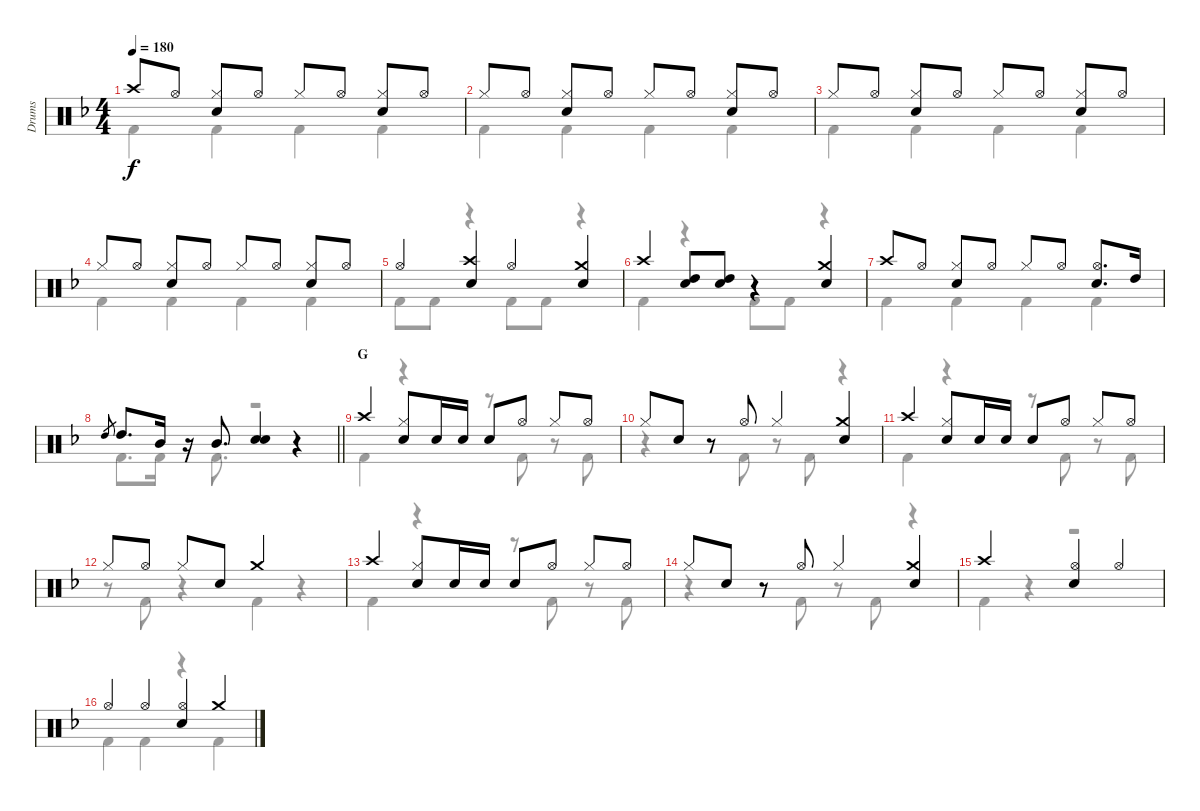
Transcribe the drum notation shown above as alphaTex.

\track ("Drums" "Drums") {instrument percussion}
\staff {score}
\articulation defaults
\voice
\ts (4 4)
\tempo 180
\clef neutral
\ks f "Crash high (hit)".8{dy f} "Hi-Hat (open)".8
("Hi-Hat (closed)" "Snare (hit) 2").8 "Hi-Hat (open)".8 "Hi-Hat (closed)".8 "Hi-Hat (open)".8 ("Hi-Hat (closed)" "Snare (hit) 2").8 "Hi-Hat (open)".8 |
"Hi-Hat (closed)".8 "Hi-Hat (open)".8 ("Hi-Hat (closed)" "Snare (hit) 2").8 "Hi-Hat (open)".8 "Hi-Hat (closed)".8 "Hi-Hat (open)".8 ("Hi-Hat (closed)" "Snare (hit) 2").8 "Hi-Hat (open)".8 |
"Hi-Hat (closed)".8 "Hi-Hat (open)".8 ("Hi-Hat (closed)" "Snare (hit) 2").8 "Hi-Hat (open)".8 "Hi-Hat (closed)".8 "Hi-Hat (open)".8 ("Hi-Hat (closed)" "Snare (hit) 2").8 "Hi-Hat (open)".8 |
"Hi-Hat (closed)".8 "Hi-Hat (open)".8 ("Hi-Hat (closed)" "Snare (hit) 2").8 "Hi-Hat (open)".8 "Hi-Hat (closed)".8 "Hi-Hat (open)".8 ("Hi-Hat (closed)" "Snare (hit) 2").8 "Hi-Hat (open)".8 |
"Hi-Hat (open)".4 ("Crash high (hit)" "Snare (hit) 2").4 "Hi-Hat (open)".4 ("Crash medium (hit)" "Snare (hit) 2").4 |
"Crash high (hit)".4 ("High Tom (hit)" "Snare (hit) 2").8 ("High Tom (hit)" "Snare (hit) 2").8 r.4 ("Crash medium (hit)" "Snare (hit) 2").4 |
"Crash high (hit)".8 "Hi-Hat (open)".8 ("Hi-Hat (closed)" "Snare (hit) 2").8 "Hi-Hat (open)".8 "Hi-Hat (closed)".8 "Hi-Hat (open)".8 ("Hi-Hat (open)" "Snare (hit) 2").8{d} "High Tom (hit)".16 |
\barLineRight lightlight "High Tom (hit)".8{gr} "High Tom (hit)".8{d} "Mid Tom (hit)".16
r.16 "Mid Tom (hit)".8{d} ("Snare (hit) 2" "Snare (hit) 2").4 r.4 |
\section ("" "G")
"Crash high (hit)".4 ("Hi-Hat (closed)" "Snare (hit) 2").8 "Snare (hit) 2".16 "Snare (hit) 2".16 "Snare (hit) 2".8 "Hi-Hat (open)".8 "Hi-Hat (closed)".8 "Hi-Hat (open)".8 |
"Hi-Hat (closed)".8 "Snare (hit) 2".8 r.8 "Hi-Hat (open)".8 "Hi-Hat (closed)".4 ("Crash medium (hit)" "Snare (hit) 2").4 |
"Crash high (hit)".4 ("Hi-Hat (closed)" "Snare (hit) 2").8 "Snare (hit) 2".16 "Snare (hit) 2".16 "Snare (hit) 2".8 "Hi-Hat (open)".8 "Hi-Hat (closed)".8 "Hi-Hat (open)".8 |
"Hi-Hat (closed)".8 "Hi-Hat (open)".8 "Hi-Hat (closed)".8 "Snare (hit) 2".8 "Crash medium (hit)".2 |
"Crash high (hit)".4 ("Hi-Hat (closed)" "Snare (hit) 2").8 "Snare (hit) 2".16 "Snare (hit) 2".16 "Snare (hit) 2".8 "Hi-Hat (open)".8 "Hi-Hat (closed)".8 "Hi-Hat (open)".8 |
"Hi-Hat (closed)".8 "Snare (hit) 2".8 r.8 "Hi-Hat (open)".8 "Hi-Hat (closed)".4 ("Crash medium (hit)" "Snare (hit) 2").4 |
"Crash high (hit)".2 ("Hi-Hat (open)" "Snare (hit) 2").4 "Hi-Hat (open)".4 |
"Hi-Hat (open)".4 "Hi-Hat (open)".4 ("Hi-Hat (open)" "Snare (hit) 2").4 "Crash medium (hit)".4
\voice
\clef neutral
\ottava regular
\simile none
\ks f "Kick (hit) 2".4{dy f} "Kick (hit) 2".4 "Kick (hit) 2".4 "Kick (hit) 2".4
|
"Kick (hit) 2".4 "Kick (hit) 2".4 "Kick (hit) 2".4 "Kick (hit) 2".4 |
"Kick (hit) 2".4 "Kick (hit) 2".4 "Kick (hit) 2".4 "Kick (hit) 2".4 |
"Kick (hit) 2".4 "Kick (hit) 2".4 "Kick (hit) 2".4 "Kick (hit) 2".4 |
"Kick (hit) 2".8 "Kick (hit) 2".8 r.4 "Kick (hit) 2".8 "Kick (hit) 2".8 r.4 |
"Kick (hit) 2".4 r.4 "Kick (hit) 2".8 "Kick (hit) 2".8 r.4 |
"Kick (hit) 2".4 "Kick (hit) 2".4 "Kick (hit) 2".4 "Kick (hit) 2".4 |
\barLineRight lightlight "Kick (hit) 2".8{d} "Kick (hit) 2".16
r.16 "Kick (hit) 2".8{d} r.2 |
"Kick (hit) 2".4 r.4 r.8 "Kick (hit) 2".8 r.8 "Kick (hit) 2".8 |
r.4 r.8 "Kick (hit) 2".8 r.8 "Kick (hit) 2".8 r.4 |
"Kick (hit) 2".4 r.4 r.8 "Kick (hit) 2".8 r.8 "Kick (hit) 2".8 |
r.8 "Kick (hit) 2".8 r.4 "Kick (hit) 2".4 r.4 |
"Kick (hit) 2".4 r.4 r.8 "Kick (hit) 2".8 r.8 "Kick (hit) 2".8 |
r.4 r.8 "Kick (hit) 2".8 r.8 "Kick (hit) 2".8 r.4 |
"Kick (hit) 2".4 r.4 r.2 |
"Kick (hit) 2".4 "Kick (hit) 2".4 r.4 "Kick (hit) 2".4
